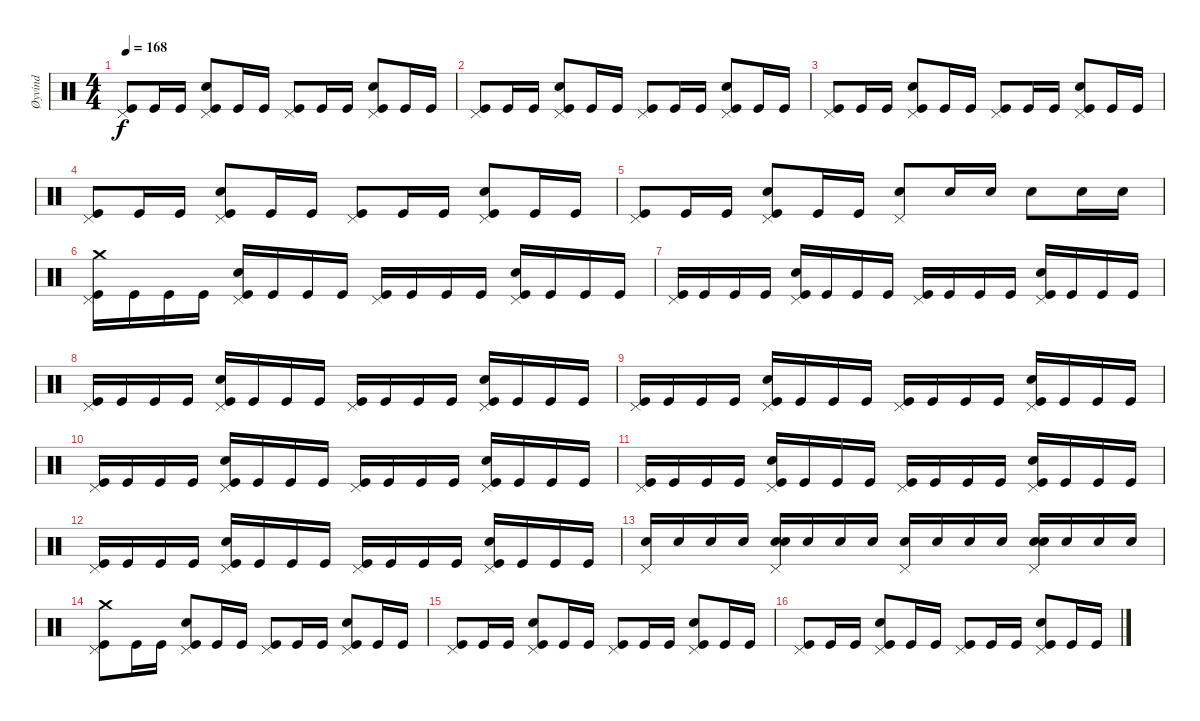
\track ("Øyvind" "Øyvind") {instrument percussion}
\staff {score}
\articulation defaults
\ts (4 4)
\tempo 168
\clef neutral
\ks c
("Pedal Hi-Hat (hit)" "Kick (hit)").8{dy f} "Kick (hit)".16 "Kick (hit)".16 ("Snare (hit) 2" "Pedal Hi-Hat (hit)" "Kick (hit)").8 "Kick (hit)".16 "Kick (hit)".16 ("Pedal Hi-Hat (hit)" "Kick (hit)").8 "Kick (hit)".16 "Kick (hit)".16 ("Snare (hit) 2" "Pedal Hi-Hat (hit)" "Kick (hit)").8 "Kick (hit)".16 "Kick (hit)".16 |
("Pedal Hi-Hat (hit)" "Kick (hit)").8 "Kick (hit)".16 "Kick (hit)".16 ("Snare (hit) 2" "Pedal Hi-Hat (hit)" "Kick (hit)").8 "Kick (hit)".16 "Kick (hit)".16 ("Pedal Hi-Hat (hit)" "Kick (hit)").8 "Kick (hit)".16 "Kick (hit)".16 ("Snare (hit) 2" "Pedal Hi-Hat (hit)" "Kick (hit)").8 "Kick (hit)".16 "Kick (hit)".16 |
("Pedal Hi-Hat (hit)" "Kick (hit)").8 "Kick (hit)".16 "Kick (hit)".16 ("Snare (hit) 2" "Pedal Hi-Hat (hit)" "Kick (hit)").8 "Kick (hit)".16 "Kick (hit)".16 ("Pedal Hi-Hat (hit)" "Kick (hit)").8 "Kick (hit)".16 "Kick (hit)".16 ("Snare (hit) 2" "Pedal Hi-Hat (hit)" "Kick (hit)").8 "Kick (hit)".16 "Kick (hit)".16 |
("Pedal Hi-Hat (hit)" "Kick (hit)").8 "Kick (hit)".16 "Kick (hit)".16 ("Snare (hit) 2" "Pedal Hi-Hat (hit)" "Kick (hit)").8 "Kick (hit)".16 "Kick (hit)".16 ("Pedal Hi-Hat (hit)" "Kick (hit)").8 "Kick (hit)".16 "Kick (hit)".16 ("Snare (hit) 2" "Pedal Hi-Hat (hit)" "Kick (hit)").8 "Kick (hit)".16 "Kick (hit)".16 |
("Pedal Hi-Hat (hit)" "Kick (hit)").8 "Kick (hit)".16 "Kick (hit)".16 ("Snare (hit) 2" "Pedal Hi-Hat (hit)" "Kick (hit)").8 "Kick (hit)".16 "Kick (hit)".16 ("Pedal Hi-Hat (hit)" "Snare (hit) 2").8 "Snare (hit) 2".16 "Snare (hit) 2".16 "Snare (hit) 2".8 "Snare (hit) 2".16 "Snare (hit) 2".16 |
("Crash medium (hit)" "Pedal Hi-Hat (hit)" "Kick (hit)").16 "Kick (hit)".16 "Kick (hit)".16 "Kick (hit)".16 ("Snare (hit) 2" "Pedal Hi-Hat (hit)" "Kick (hit)").16 "Kick (hit)".16 "Kick (hit)".16 "Kick (hit)".16 ("Pedal Hi-Hat (hit)" "Kick (hit)").16 "Kick (hit)".16 "Kick (hit)".16 "Kick (hit)".16 ("Snare (hit) 2" "Pedal Hi-Hat (hit)" "Kick (hit)").16 "Kick (hit)".16 "Kick (hit)".16 "Kick (hit)".16 |
("Pedal Hi-Hat (hit)" "Kick (hit)").16 "Kick (hit)".16 "Kick (hit)".16 "Kick (hit)".16 ("Snare (hit) 2" "Pedal Hi-Hat (hit)" "Kick (hit)").16 "Kick (hit)".16 "Kick (hit)".16 "Kick (hit)".16 ("Pedal Hi-Hat (hit)" "Kick (hit)").16 "Kick (hit)".16 "Kick (hit)".16 "Kick (hit)".16 ("Snare (hit) 2" "Pedal Hi-Hat (hit)" "Kick (hit)").16 "Kick (hit)".16 "Kick (hit)".16 "Kick (hit)".16 |
("Pedal Hi-Hat (hit)" "Kick (hit)").16 "Kick (hit)".16 "Kick (hit)".16 "Kick (hit)".16 ("Snare (hit) 2" "Pedal Hi-Hat (hit)" "Kick (hit)").16 "Kick (hit)".16 "Kick (hit)".16 "Kick (hit)".16 ("Pedal Hi-Hat (hit)" "Kick (hit)").16 "Kick (hit)".16 "Kick (hit)".16 "Kick (hit)".16 ("Snare (hit) 2" "Pedal Hi-Hat (hit)" "Kick (hit)").16 "Kick (hit)".16 "Kick (hit)".16 "Kick (hit)".16 |
("Pedal Hi-Hat (hit)" "Kick (hit)").16 "Kick (hit)".16 "Kick (hit)".16 "Kick (hit)".16 ("Snare (hit) 2" "Pedal Hi-Hat (hit)" "Kick (hit)").16 "Kick (hit)".16 "Kick (hit)".16 "Kick (hit)".16 ("Pedal Hi-Hat (hit)" "Kick (hit)").16 "Kick (hit)".16 "Kick (hit)".16 "Kick (hit)".16 ("Snare (hit) 2" "Pedal Hi-Hat (hit)" "Kick (hit)").16 "Kick (hit)".16 "Kick (hit)".16 "Kick (hit)".16 |
("Pedal Hi-Hat (hit)" "Kick (hit)").16 "Kick (hit)".16 "Kick (hit)".16 "Kick (hit)".16 ("Snare (hit) 2" "Pedal Hi-Hat (hit)" "Kick (hit)").16 "Kick (hit)".16 "Kick (hit)".16 "Kick (hit)".16 ("Pedal Hi-Hat (hit)" "Kick (hit)").16 "Kick (hit)".16 "Kick (hit)".16 "Kick (hit)".16 ("Snare (hit) 2" "Pedal Hi-Hat (hit)" "Kick (hit)").16 "Kick (hit)".16 "Kick (hit)".16 "Kick (hit)".16 |
("Pedal Hi-Hat (hit)" "Kick (hit)").16 "Kick (hit)".16 "Kick (hit)".16 "Kick (hit)".16 ("Snare (hit) 2" "Pedal Hi-Hat (hit)" "Kick (hit)").16 "Kick (hit)".16 "Kick (hit)".16 "Kick (hit)".16 ("Pedal Hi-Hat (hit)" "Kick (hit)").16 "Kick (hit)".16 "Kick (hit)".16 "Kick (hit)".16 ("Snare (hit) 2" "Pedal Hi-Hat (hit)" "Kick (hit)").16 "Kick (hit)".16 "Kick (hit)".16 "Kick (hit)".16 |
("Pedal Hi-Hat (hit)" "Kick (hit)").16 "Kick (hit)".16 "Kick (hit)".16 "Kick (hit)".16 ("Snare (hit) 2" "Pedal Hi-Hat (hit)" "Kick (hit)").16 "Kick (hit)".16 "Kick (hit)".16 "Kick (hit)".16 ("Pedal Hi-Hat (hit)" "Kick (hit)").16 "Kick (hit)".16 "Kick (hit)".16 "Kick (hit)".16 ("Snare (hit) 2" "Pedal Hi-Hat (hit)" "Kick (hit)").16 "Kick (hit)".16 "Kick (hit)".16 "Kick (hit)".16 |
("Pedal Hi-Hat (hit)" "Snare (hit) 2").16 "Snare (hit) 2".16 "Snare (hit) 2".16 "Snare (hit) 2".16 ("Snare (hit) 2" "Pedal Hi-Hat (hit)" "Snare (hit) 2").16 "Snare (hit) 2".16 "Snare (hit) 2".16 "Snare (hit) 2".16 ("Pedal Hi-Hat (hit)" "Snare (hit) 2").16 "Snare (hit) 2".16 "Snare (hit) 2".16 "Snare (hit) 2".16 ("Snare (hit) 2" "Pedal Hi-Hat (hit)" "Snare (hit) 2").16 "Snare (hit) 2".16 "Snare (hit) 2".16 "Snare (hit) 2".16 |
("Crash medium (hit)" "Pedal Hi-Hat (hit)" "Kick (hit)").8 "Kick (hit)".16 "Kick (hit)".16 ("Snare (hit) 2" "Pedal Hi-Hat (hit)" "Kick (hit)").8 "Kick (hit)".16 "Kick (hit)".16 ("Pedal Hi-Hat (hit)" "Kick (hit)").8 "Kick (hit)".16 "Kick (hit)".16 ("Snare (hit) 2" "Pedal Hi-Hat (hit)" "Kick (hit)").8 "Kick (hit)".16 "Kick (hit)".16 |
("Pedal Hi-Hat (hit)" "Kick (hit)").8 "Kick (hit)".16 "Kick (hit)".16 ("Snare (hit) 2" "Pedal Hi-Hat (hit)" "Kick (hit)").8 "Kick (hit)".16 "Kick (hit)".16 ("Pedal Hi-Hat (hit)" "Kick (hit)").8 "Kick (hit)".16 "Kick (hit)".16 ("Snare (hit) 2" "Pedal Hi-Hat (hit)" "Kick (hit)").8 "Kick (hit)".16 "Kick (hit)".16 |
("Pedal Hi-Hat (hit)" "Kick (hit)").8 "Kick (hit)".16 "Kick (hit)".16 ("Snare (hit) 2" "Pedal Hi-Hat (hit)" "Kick (hit)").8 "Kick (hit)".16 "Kick (hit)".16 ("Pedal Hi-Hat (hit)" "Kick (hit)").8 "Kick (hit)".16 "Kick (hit)".16 ("Snare (hit) 2" "Pedal Hi-Hat (hit)" "Kick (hit)").8 "Kick (hit)".16 "Kick (hit)".16
